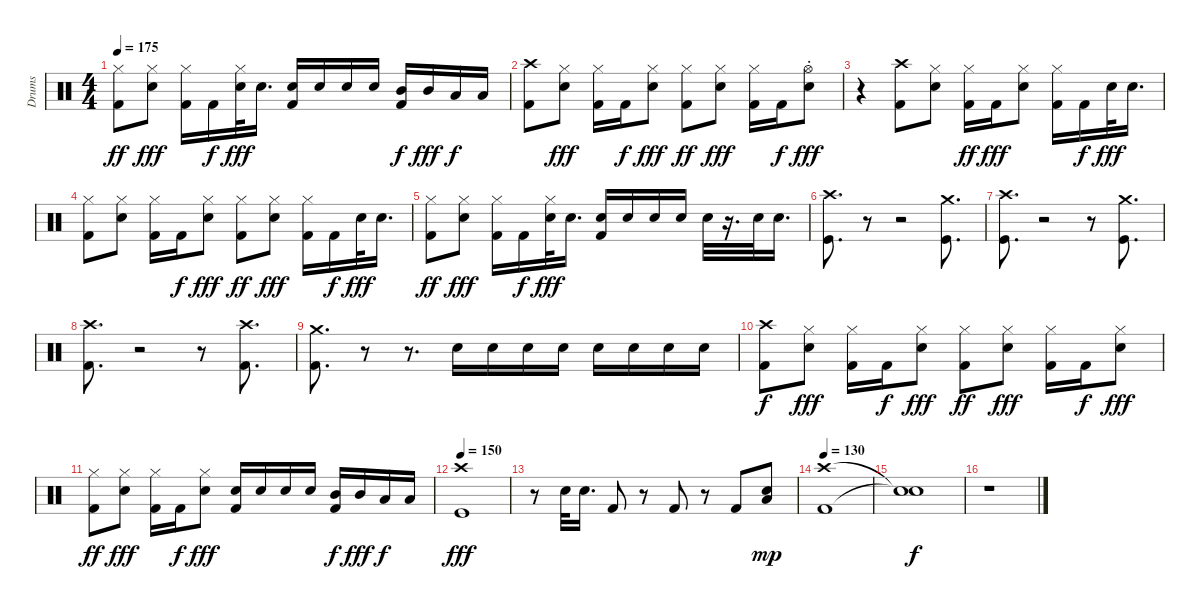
\track ("Drums" "Drums") {instrument percussion}
\staff {score}
\articulation defaults
\ts (4 4)
\tempo 175
\clef neutral
\ks c
("Hi-Hat (closed)" "Kick (hit) 2").8{dy ff} ("Hi-Hat (closed)" "Snare (hit) 2").8{dy fff} ("Hi-Hat (closed)" "Kick (hit) 2").16 "Kick (hit) 2".16{dy f} ("Hi-Hat (closed)" "Snare (hit) 2").32{dy fff} "Snare (hit) 2".16{d} ("Snare (hit) 2" "Kick (hit) 2").16 "Snare (hit) 2".16 "Snare (hit) 2".16 "Snare (hit) 2".16 ("Mid Tom (hit)" "Kick (hit) 2").16{dy f} "Mid Tom (hit)".16{dy fff} "Low Tom (hit)".16{dy f} "Low Tom (hit)".16 |
("Crash high (hit)" "Kick (hit) 2").8 ("Hi-Hat (closed)" "Snare (hit) 2").8{dy fff} ("Hi-Hat (closed)" "Kick (hit) 2").16 "Kick (hit) 2".16{dy f} ("Hi-Hat (closed)" "Snare (hit) 2").8{dy fff} ("Hi-Hat (closed)" "Kick (hit) 2").8{dy ff} ("Hi-Hat (closed)" "Snare (hit) 2").8{dy fff} ("Hi-Hat (closed)" "Kick (hit) 2").16 "Kick (hit) 2".16{dy f} ("Hi-Hat (open)"{st} "Snare (hit) 2").8{dy fff} |
r.4 ("Crash high (hit)" "Kick (hit) 2").8 ("Hi-Hat (closed)" "Snare (hit) 2").8 ("Hi-Hat (closed)" "Kick (hit) 2").16{dy ff} "Kick (hit) 2".16{dy fff} ("Hi-Hat (closed)" "Snare (hit) 2").8 ("Hi-Hat (closed)" "Kick (hit) 2").16 "Kick (hit) 2".16{dy f} "Snare (hit) 2".32{dy fff} "Snare (hit) 2".16{d} |
("Hi-Hat (closed)" "Kick (hit) 2").8 ("Hi-Hat (closed)" "Snare (hit) 2").8 ("Hi-Hat (closed)" "Kick (hit) 2").16 "Kick (hit) 2".16{dy f} ("Hi-Hat (closed)" "Snare (hit) 2").8{dy fff} ("Hi-Hat (closed)" "Kick (hit) 2").8{dy ff} ("Hi-Hat (closed)" "Snare (hit) 2").8{dy fff} ("Hi-Hat (closed)" "Kick (hit) 2").16 "Kick (hit) 2".16{dy f} "Snare (hit) 2".32{dy fff} "Snare (hit) 2".16{d} |
("Hi-Hat (closed)" "Kick (hit) 2").8{dy ff} ("Hi-Hat (closed)" "Snare (hit) 2").8{dy fff} ("Hi-Hat (closed)" "Kick (hit) 2").16 "Kick (hit) 2".16{dy f} ("Hi-Hat (closed)" "Snare (hit) 2").32{dy fff} "Snare (hit) 2".16{d} ("Snare (hit) 2" "Kick (hit) 2").16 "Snare (hit) 2".16 "Snare (hit) 2".16 "Snare (hit) 2".16 "Snare (hit) 2".32 r.16{d} "Snare (hit) 2".32 "Snare (hit) 2".16{d} |
("Crash high (hit)" "Kick (hit)").8{d} r.8 r.2 ("Crash medium (hit)" "Kick (hit)").8{d} |
("Crash high (hit)" "Kick (hit)").8{d} r.2 r.8 ("Crash medium (hit)" "Kick (hit)").8{d} |
("Crash high (hit)" "Kick (hit) 2").8{d} r.2 r.8 ("Crash high (hit)" "Kick (hit) 2").8{d} |
("Crash medium (hit)" "Kick (hit) 2").8{d} r.8 r.8{d} "Snare (hit) 2".16 "Snare (hit) 2".16 "Snare (hit) 2".16 "Snare (hit) 2".16 "Snare (hit) 2".16 "Snare (hit) 2".16 "Snare (hit) 2".16 "Snare (hit) 2".16 |
("Crash high (hit)" "Kick (hit) 2").8{dy f} ("Hi-Hat (closed)" "Snare (hit) 2").8{dy fff} ("Hi-Hat (closed)" "Kick (hit) 2").16 "Kick (hit) 2".16{dy f} ("Hi-Hat (closed)" "Snare (hit) 2").8{dy fff} ("Hi-Hat (closed)" "Kick (hit) 2").8{dy ff} ("Hi-Hat (closed)" "Snare (hit) 2").8{dy fff} ("Hi-Hat (closed)" "Kick (hit) 2").16 "Kick (hit) 2".16{dy f} ("Hi-Hat (closed)" "Snare (hit) 2").8{dy fff} |
("Hi-Hat (closed)" "Kick (hit) 2").8{dy ff} ("Hi-Hat (closed)" "Snare (hit) 2").8{dy fff} ("Hi-Hat (closed)" "Kick (hit) 2").16 "Kick (hit) 2".16{dy f} ("Hi-Hat (closed)" "Snare (hit) 2").8{dy fff} ("Snare (hit) 2" "Kick (hit) 2").16 "Snare (hit) 2".16 "Snare (hit) 2".16 "Snare (hit) 2".16 ("Mid Tom (hit)" "Kick (hit) 2").16{dy f} "Mid Tom (hit)".16{dy fff} "Low Tom (hit)".16{dy f} "Low Tom (hit)".16 |
\tempo 150
("Crash high (hit)" "Kick (hit)").1{dy fff} |
r.8 "Snare (hit) 2".32 "Snare (hit) 2".16{d} "Kick (hit) 2".8 r.8 "Kick (hit) 2".8 r.8 "Kick (hit) 2".8 ("Low Tom (hit)" "Snare (hit) 2").8{dy mp} |
\tempo 130
("Crash high (hit)" "Kick (hit) 2").1 |
("Snare (hit)"{t} "Snare (hit)"{t}).1{dy f} |
r.1
